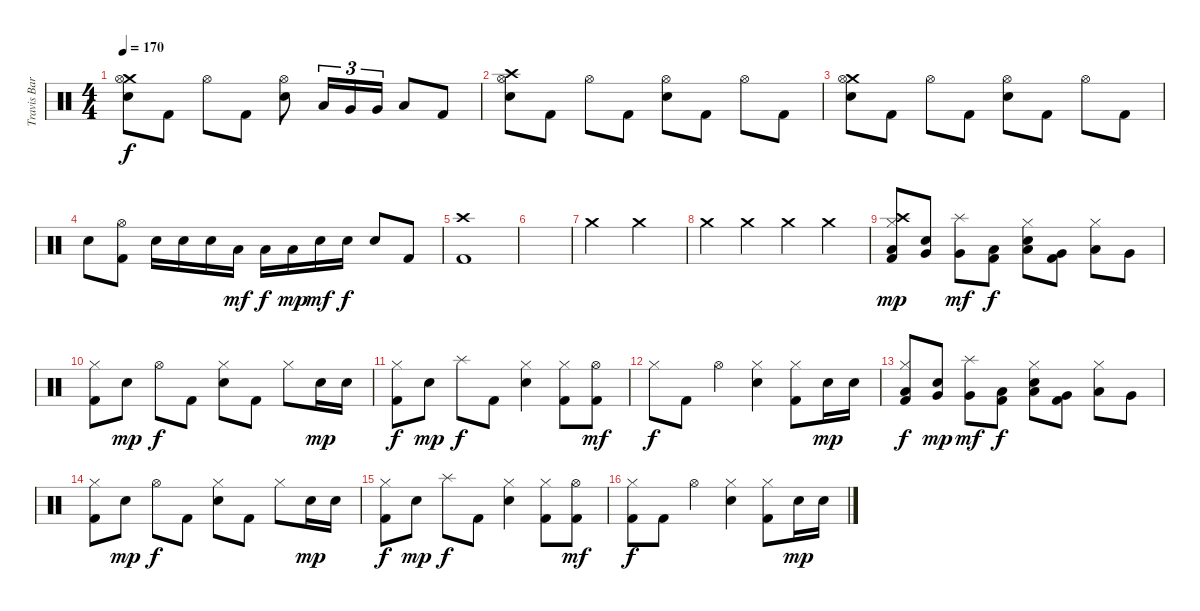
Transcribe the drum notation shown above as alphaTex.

\track ("Travis Barker" "Travis Bar") {instrument percussion}
\staff {score}
\articulation defaults
\ts (4 4)
\tempo 170
\clef neutral
\ks c
("Crash medium (hit)" "Hi-Hat (open)" "Snare (hit) 2").8{dy f} "Kick (hit) 2".8 "Hi-Hat (open)".8 "Kick (hit) 2".8 ("Hi-Hat (open)" "Snare (hit) 2").8 "Low Tom (hit)".16{tu (3 2)} "Very Low Tom (hit)".16{tu (3 2)} "Very Low Tom (hit)".16{tu (3 2)} "Low Tom (hit)".8 "Kick (hit) 2".8 |
("Crash high (hit)" "Hi-Hat (open)" "Snare (hit) 2").8 "Kick (hit) 2".8 "Hi-Hat (open)".8 "Kick (hit) 2".8 ("Hi-Hat (open)" "Snare (hit) 2").8 "Kick (hit) 2".8 "Hi-Hat (open)".8 "Kick (hit) 2".8 |
("Crash medium (hit)" "Hi-Hat (open)" "Snare (hit) 2").8 "Kick (hit) 2".8 "Hi-Hat (open)".8 "Kick (hit) 2".8 ("Hi-Hat (open)" "Snare (hit) 2").8 "Kick (hit) 2".8 "Hi-Hat (open)".8 "Kick (hit) 2".8 |
"Snare (hit) 2".8 ("Hi-Hat (open)" "Kick (hit) 2").8 "Snare (hit) 2".16 "Snare (hit) 2".16 "Snare (hit) 2".16 "Low Tom (hit)".16{dy mf} "Low Tom (hit)".16{dy f} "Low Tom (hit)".16{dy mp} "Snare (hit) 2".16{dy mf} "Snare (hit) 2".16{dy f} "Snare (hit) 2".8 "Kick (hit) 2".8 |
("Crash high (hit)" "Kick (hit) 2").1 |
|
"Crash medium (hit)".2 "Crash medium (hit)".2 |
"Crash medium (hit)".4 "Crash medium (hit)".4 "Crash medium (hit)".4 "Crash medium (hit)".4 |
("Crash high (hit)" "Hi-Hat (closed)" "Low Floor Tom (hit)" "Kick (hit) 2").8{dy mp} ("Very Low Tom (hit)" "Electric Snare (hit)").8 ("Splash (hit)" "Very Low Tom (hit)").8{dy mf} ("Low Floor Tom (hit)" "Kick (hit) 2").8{dy f} ("Hi-Hat (closed)" "Low Floor Tom (hit)" "Electric Snare (hit)").8 ("Very Low Tom (hit)" "Kick (hit) 2").8 ("Hi-Hat (closed)" "Low Tom (hit)").8 "Very Low Tom (hit)".8 |
("Hi-Hat (closed)" "Kick (hit) 2").8 "Electric Snare (hit)".8{dy mp} "Hi-Hat (open)".8{dy f} "Kick (hit) 2".8 ("Hi-Hat (closed)" "Electric Snare (hit)").8 "Kick (hit) 2".8 "Hi-Hat (closed)".8 "Electric Snare (hit)".16{dy mp} "Electric Snare (hit)".16 |
("Hi-Hat (closed)" "Kick (hit) 2").8{dy f} "Electric Snare (hit)".8{dy mp} "Splash (hit)".8{dy f} "Kick (hit) 2".8 ("Hi-Hat (closed)" "Electric Snare (hit)").4 ("Hi-Hat (closed)" "Kick (hit) 2").8 ("Hi-Hat (open)" "Kick (hit) 2").8{dy mf} |
"Hi-Hat (closed)".8{dy f} "Kick (hit) 2".8 "Hi-Hat (open)".4 ("Hi-Hat (closed)" "Electric Snare (hit)").4 ("Hi-Hat (closed)" "Kick (hit) 2").8 "Electric Snare (hit)".16{dy mp} "Electric Snare (hit)".16 |
("Hi-Hat (closed)" "Low Floor Tom (hit)" "Kick (hit) 2").8{dy f} ("Very Low Tom (hit)" "Electric Snare (hit)").8{dy mp} ("Splash (hit)" "Very Low Tom (hit)").8{dy mf} ("Low Floor Tom (hit)" "Kick (hit) 2").8{dy f} ("Hi-Hat (closed)" "Low Floor Tom (hit)" "Electric Snare (hit)").8 ("Very Low Tom (hit)" "Kick (hit) 2").8 ("Hi-Hat (closed)" "Low Tom (hit)").8 "Very Low Tom (hit)".8 |
("Hi-Hat (closed)" "Kick (hit) 2").8 "Electric Snare (hit)".8{dy mp} "Hi-Hat (open)".8{dy f} "Kick (hit) 2".8 ("Hi-Hat (closed)" "Electric Snare (hit)").8 "Kick (hit) 2".8 "Hi-Hat (closed)".8 "Electric Snare (hit)".16{dy mp} "Electric Snare (hit)".16 |
("Hi-Hat (closed)" "Kick (hit) 2").8{dy f} "Electric Snare (hit)".8{dy mp} "Splash (hit)".8{dy f} "Kick (hit) 2".8 ("Hi-Hat (closed)" "Electric Snare (hit)").4 ("Hi-Hat (closed)" "Kick (hit) 2").8 ("Hi-Hat (open)" "Kick (hit) 2").8{dy mf} |
("Hi-Hat (closed)" "Kick (hit) 2").8{dy f} "Kick (hit) 2".8 "Hi-Hat (open)".4 ("Hi-Hat (closed)" "Electric Snare (hit)").4 ("Hi-Hat (closed)" "Kick (hit) 2").8 "Electric Snare (hit)".16{dy mp} "Electric Snare (hit)".16
